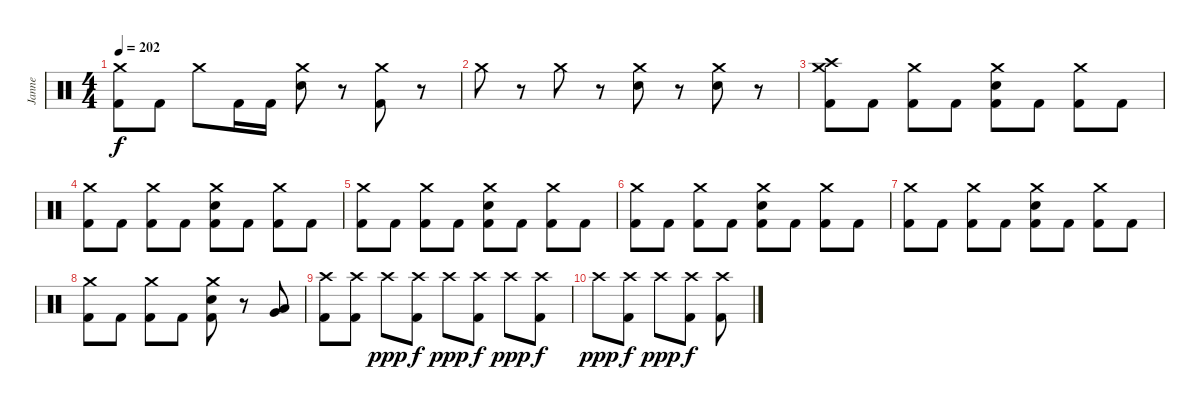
\track ("Janne" "Janne") {instrument percussion}
\staff {score}
\articulation defaults
\ts (4 4)
\tempo 202
\clef neutral
\ks c
("Crash medium (hit)" "Kick (hit) 2").8{dy f} "Kick (hit) 2".8 "Crash medium (hit)".8 "Kick (hit) 2".16 "Kick (hit) 2".16 ("Crash medium (hit)" "Electric Snare (hit)").8 r.8 ("Crash medium (hit)" "Kick (hit) 2").8 r.8 |
"Crash medium (hit)".8 r.8 "Crash medium (hit)".8 r.8 ("Crash medium (hit)" "Electric Snare (hit)").8 r.8 ("Crash medium (hit)" "Electric Snare (hit)").8 r.8 |
("Crash high (hit)" "Crash medium (hit)" "Kick (hit) 2").8 "Kick (hit) 2".8 ("Crash medium (hit)" "Kick (hit) 2").8 "Kick (hit) 2".8 ("Crash medium (hit)" "Electric Snare (hit)" "Kick (hit) 2").8 "Kick (hit) 2".8 ("Crash medium (hit)" "Kick (hit) 2").8 "Kick (hit) 2".8 |
("Crash medium (hit)" "Kick (hit) 2").8 "Kick (hit) 2".8 ("Crash medium (hit)" "Kick (hit) 2").8 "Kick (hit) 2".8 ("Crash medium (hit)" "Electric Snare (hit)" "Kick (hit) 2").8 "Kick (hit) 2".8 ("Crash medium (hit)" "Kick (hit) 2").8 "Kick (hit) 2".8 |
("Crash medium (hit)" "Kick (hit) 2").8 "Kick (hit) 2".8 ("Crash medium (hit)" "Kick (hit) 2").8 "Kick (hit) 2".8 ("Crash medium (hit)" "Electric Snare (hit)" "Kick (hit) 2").8 "Kick (hit) 2".8 ("Crash medium (hit)" "Kick (hit) 2").8 "Kick (hit) 2".8 |
("Crash medium (hit)" "Kick (hit) 2").8 "Kick (hit) 2".8 ("Crash medium (hit)" "Kick (hit) 2").8 "Kick (hit) 2".8 ("Crash medium (hit)" "Electric Snare (hit)" "Kick (hit) 2").8 "Kick (hit) 2".8 ("Crash medium (hit)" "Kick (hit) 2").8 "Kick (hit) 2".8 |
("Crash medium (hit)" "Kick (hit) 2").8 "Kick (hit) 2".8 ("Crash medium (hit)" "Kick (hit) 2").8 "Kick (hit) 2".8 ("Crash medium (hit)" "Electric Snare (hit)" "Kick (hit) 2").8 "Kick (hit) 2".8 ("Crash medium (hit)" "Kick (hit) 2").8 "Kick (hit) 2".8 |
("Crash medium (hit)" "Kick (hit) 2").8 "Kick (hit) 2".8 ("Crash medium (hit)" "Kick (hit) 2").8 "Kick (hit) 2".8 ("Crash medium (hit)" "Electric Snare (hit)" "Kick (hit) 2").8 r.8 ("Very Low Tom (hit)" "Low Floor Tom (hit)").8 |
("Crash high (hit)" "Kick (hit) 2").8 ("Crash high (hit)" "Kick (hit) 2").8 "Crash high (hit)".8{dy ppp} ("Crash high (hit)" "Kick (hit) 2").8{dy f} "Crash high (hit)".8{dy ppp} ("Crash high (hit)" "Kick (hit) 2").8{dy f} "Crash high (hit)".8{dy ppp} ("Crash high (hit)" "Kick (hit) 2").8{dy f} |
"Crash high (hit)".8{dy ppp} ("Crash high (hit)" "Kick (hit) 2").8{dy f} "Crash high (hit)".8{dy ppp} ("Crash high (hit)" "Kick (hit) 2").8{dy f} ("Crash high (hit)" "Kick (hit) 2").8
